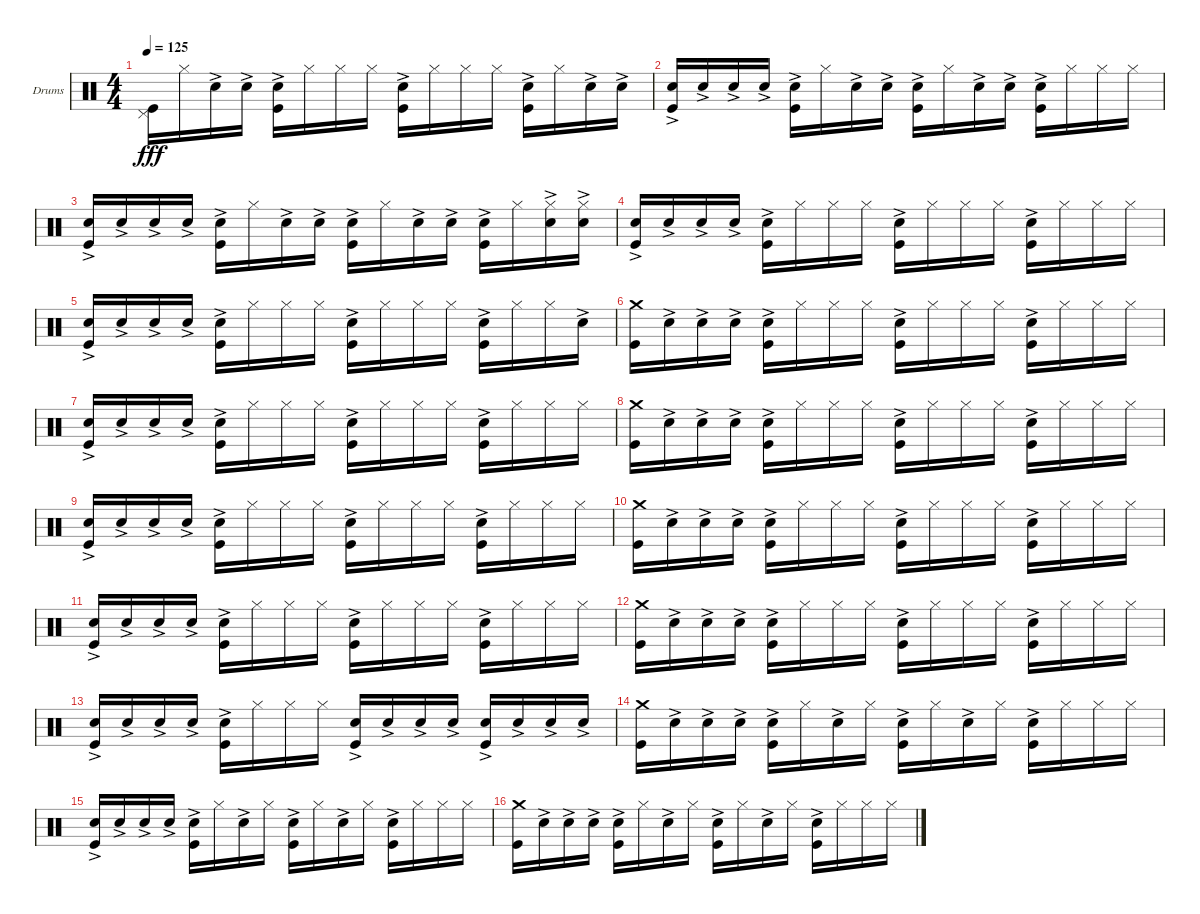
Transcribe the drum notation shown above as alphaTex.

\bracketExtendMode groupsimilarinstruments
\firstSystemTrackNameOrientation horizontal
\otherSystemsTrackNameOrientation horizontal
\track ("Ударники Григорий Гурьянов" "Drums") {instrument percussion}
\staff {score}
\articulation defaults
\ts (4 4)
\tempo 125
\clef neutral
\ks c
("Pedal Hi-Hat (hit)" "Kick (hit)").16{dy fff} "Hi-Hat (closed)".16 "Snare (hit) 2"{ac}.16 "Snare (hit) 2"{ac}.16 ("Snare (hit) 2"{ac} "Kick (hit)").16 "Hi-Hat (closed)".16 "Hi-Hat (closed)".16 "Hi-Hat (closed)".16 ("Snare (hit) 2"{ac} "Kick (hit)").16 "Hi-Hat (closed)".16 "Hi-Hat (closed)".16 "Hi-Hat (closed)".16 ("Snare (hit) 2"{ac} "Kick (hit)").16 "Hi-Hat (closed)".16 "Snare (hit) 2"{ac}.16 "Snare (hit) 2"{ac}.16 |
("Snare (hit) 2"{ac} "Kick (hit)").16 "Snare (hit) 2"{ac}.16 "Snare (hit) 2"{ac}.16 "Snare (hit) 2"{ac}.16 ("Snare (hit) 2"{ac} "Kick (hit)").16 "Hi-Hat (closed)".16 "Snare (hit) 2"{ac}.16 "Snare (hit) 2"{ac}.16 ("Snare (hit) 2"{ac} "Kick (hit)").16 "Hi-Hat (closed)".16 "Snare (hit) 2"{ac}.16 "Snare (hit) 2"{ac}.16 ("Snare (hit) 2"{ac} "Kick (hit)").16 "Hi-Hat (closed)".16 "Hi-Hat (closed)".16 "Hi-Hat (closed)".16 |
("Snare (hit) 2"{ac} "Kick (hit)").16 "Snare (hit) 2"{ac}.16 "Snare (hit) 2"{ac}.16 "Snare (hit) 2"{ac}.16 ("Snare (hit) 2"{ac} "Kick (hit)").16 "Hi-Hat (closed)".16 "Snare (hit) 2"{ac}.16 "Snare (hit) 2"{ac}.16 ("Snare (hit) 2"{ac} "Kick (hit)").16 "Hi-Hat (closed)".16 "Snare (hit) 2"{ac}.16 "Snare (hit) 2"{ac}.16 ("Snare (hit) 2"{ac} "Kick (hit)").16 "Hi-Hat (closed)".16 ("Hi-Hat (closed)" "Snare (hit) 2"{ac}).16 ("Hi-Hat (closed)" "Snare (hit) 2"{ac}).16 |
("Snare (hit) 2"{ac} "Kick (hit)").16 "Snare (hit) 2"{ac}.16 "Snare (hit) 2"{ac}.16 "Snare (hit) 2"{ac}.16 ("Snare (hit) 2"{ac} "Kick (hit)").16 "Hi-Hat (closed)".16 "Hi-Hat (closed)".16 "Hi-Hat (closed)".16 ("Snare (hit) 2"{ac} "Kick (hit)").16 "Hi-Hat (closed)".16 "Hi-Hat (closed)".16 "Hi-Hat (closed)".16 ("Snare (hit) 2"{ac} "Kick (hit)").16 "Hi-Hat (closed)".16 "Hi-Hat (closed)".16 "Hi-Hat (closed)".16 |
("Snare (hit) 2"{ac} "Kick (hit)").16 "Snare (hit) 2"{ac}.16 "Snare (hit) 2"{ac}.16 "Snare (hit) 2"{ac}.16 ("Snare (hit) 2"{ac} "Kick (hit)").16 "Hi-Hat (closed)".16 "Hi-Hat (closed)".16 "Hi-Hat (closed)".16 ("Snare (hit) 2"{ac} "Kick (hit)").16 "Hi-Hat (closed)".16 "Hi-Hat (closed)".16 "Hi-Hat (closed)".16 ("Snare (hit) 2"{ac} "Kick (hit)").16 "Hi-Hat (closed)".16 "Hi-Hat (closed)".16 "Snare (hit) 2"{ac}.16 |
("Crash medium (hit)" "Kick (hit)").16 "Snare (hit) 2"{ac}.16 "Snare (hit) 2"{ac}.16 "Snare (hit) 2"{ac}.16 ("Snare (hit) 2"{ac} "Kick (hit)").16 "Hi-Hat (closed)".16 "Hi-Hat (closed)".16 "Hi-Hat (closed)".16 ("Snare (hit) 2"{ac} "Kick (hit)").16 "Hi-Hat (closed)".16 "Hi-Hat (closed)".16 "Hi-Hat (closed)".16 ("Snare (hit) 2"{ac} "Kick (hit)").16 "Hi-Hat (closed)".16 "Hi-Hat (closed)".16 "Hi-Hat (closed)".16 |
("Snare (hit) 2"{ac} "Kick (hit)").16 "Snare (hit) 2"{ac}.16 "Snare (hit) 2"{ac}.16 "Snare (hit) 2"{ac}.16 ("Snare (hit) 2"{ac} "Kick (hit)").16 "Hi-Hat (closed)".16 "Hi-Hat (closed)".16 "Hi-Hat (closed)".16 ("Snare (hit) 2"{ac} "Kick (hit)").16 "Hi-Hat (closed)".16 "Hi-Hat (closed)".16 "Hi-Hat (closed)".16 ("Snare (hit) 2"{ac} "Kick (hit)").16 "Hi-Hat (closed)".16 "Hi-Hat (closed)".16 "Hi-Hat (closed)".16 |
("Crash medium (hit)" "Kick (hit)").16 "Snare (hit) 2"{ac}.16 "Snare (hit) 2"{ac}.16 "Snare (hit) 2"{ac}.16 ("Snare (hit) 2"{ac} "Kick (hit)").16 "Hi-Hat (closed)".16 "Hi-Hat (closed)".16 "Hi-Hat (closed)".16 ("Snare (hit) 2"{ac} "Kick (hit)").16 "Hi-Hat (closed)".16 "Hi-Hat (closed)".16 "Hi-Hat (closed)".16 ("Snare (hit) 2"{ac} "Kick (hit)").16 "Hi-Hat (closed)".16 "Hi-Hat (closed)".16 "Hi-Hat (closed)".16 |
("Snare (hit) 2"{ac} "Kick (hit)").16 "Snare (hit) 2"{ac}.16 "Snare (hit) 2"{ac}.16 "Snare (hit) 2"{ac}.16 ("Snare (hit) 2"{ac} "Kick (hit)").16 "Hi-Hat (closed)".16 "Hi-Hat (closed)".16 "Hi-Hat (closed)".16 ("Snare (hit) 2"{ac} "Kick (hit)").16 "Hi-Hat (closed)".16 "Hi-Hat (closed)".16 "Hi-Hat (closed)".16 ("Snare (hit) 2"{ac} "Kick (hit)").16 "Hi-Hat (closed)".16 "Hi-Hat (closed)".16 "Hi-Hat (closed)".16 |
("Crash medium (hit)" "Kick (hit)").16 "Snare (hit) 2"{ac}.16 "Snare (hit) 2"{ac}.16 "Snare (hit) 2"{ac}.16 ("Snare (hit) 2"{ac} "Kick (hit)").16 "Hi-Hat (closed)".16 "Hi-Hat (closed)".16 "Hi-Hat (closed)".16 ("Snare (hit) 2"{ac} "Kick (hit)").16 "Hi-Hat (closed)".16 "Hi-Hat (closed)".16 "Hi-Hat (closed)".16 ("Snare (hit) 2"{ac} "Kick (hit)").16 "Hi-Hat (closed)".16 "Hi-Hat (closed)".16 "Hi-Hat (closed)".16 |
("Snare (hit) 2"{ac} "Kick (hit)").16 "Snare (hit) 2"{ac}.16 "Snare (hit) 2"{ac}.16 "Snare (hit) 2"{ac}.16 ("Snare (hit) 2"{ac} "Kick (hit)").16 "Hi-Hat (closed)".16 "Hi-Hat (closed)".16 "Hi-Hat (closed)".16 ("Snare (hit) 2"{ac} "Kick (hit)").16 "Hi-Hat (closed)".16 "Hi-Hat (closed)".16 "Hi-Hat (closed)".16 ("Snare (hit) 2"{ac} "Kick (hit)").16 "Hi-Hat (closed)".16 "Hi-Hat (closed)".16 "Hi-Hat (closed)".16 |
("Crash medium (hit)" "Kick (hit)").16 "Snare (hit) 2"{ac}.16 "Snare (hit) 2"{ac}.16 "Snare (hit) 2"{ac}.16 ("Snare (hit) 2"{ac} "Kick (hit)").16 "Hi-Hat (closed)".16 "Hi-Hat (closed)".16 "Hi-Hat (closed)".16 ("Snare (hit) 2"{ac} "Kick (hit)").16 "Hi-Hat (closed)".16 "Hi-Hat (closed)".16 "Hi-Hat (closed)".16 ("Snare (hit) 2"{ac} "Kick (hit)").16 "Hi-Hat (closed)".16 "Hi-Hat (closed)".16 "Hi-Hat (closed)".16 |
("Snare (hit) 2"{ac} "Kick (hit)").16 "Snare (hit) 2"{ac}.16 "Snare (hit) 2"{ac}.16 "Snare (hit) 2"{ac}.16 ("Snare (hit) 2"{ac} "Kick (hit)").16 "Hi-Hat (closed)".16 "Hi-Hat (closed)".16 "Hi-Hat (closed)".16 ("Snare (hit) 2"{ac} "Kick (hit)").16 "Snare (hit) 2"{ac}.16 "Snare (hit) 2"{ac}.16 "Snare (hit) 2"{ac}.16 ("Snare (hit) 2"{ac} "Kick (hit)").16 "Snare (hit) 2"{ac}.16 "Snare (hit) 2"{ac}.16 "Snare (hit) 2"{ac}.16 |
("Crash medium (hit)" "Kick (hit)").16 "Snare (hit) 2"{ac}.16 "Snare (hit) 2"{ac}.16 "Snare (hit) 2"{ac}.16 ("Snare (hit) 2"{ac} "Kick (hit)").16 "Hi-Hat (closed)".16 "Snare (hit) 2"{ac}.16 "Hi-Hat (closed)".16 ("Snare (hit) 2"{ac} "Kick (hit)").16 "Hi-Hat (closed)".16 "Snare (hit) 2"{ac}.16 "Hi-Hat (closed)".16 ("Snare (hit) 2"{ac} "Kick (hit)").16 "Hi-Hat (closed)".16 "Hi-Hat (closed)".16 "Hi-Hat (closed)".16 |
("Snare (hit) 2"{ac} "Kick (hit)").16 "Snare (hit) 2"{ac}.16 "Snare (hit) 2"{ac}.16 "Snare (hit) 2"{ac}.16 ("Snare (hit) 2"{ac} "Kick (hit)").16 "Hi-Hat (closed)".16 "Snare (hit) 2"{ac}.16 "Hi-Hat (closed)".16 ("Snare (hit) 2"{ac} "Kick (hit)").16 "Hi-Hat (closed)".16 "Snare (hit) 2"{ac}.16 "Hi-Hat (closed)".16 ("Snare (hit) 2"{ac} "Kick (hit)").16 "Hi-Hat (closed)".16 "Hi-Hat (closed)".16 "Hi-Hat (closed)".16 |
("Crash medium (hit)" "Kick (hit)").16 "Snare (hit) 2"{ac}.16 "Snare (hit) 2"{ac}.16 "Snare (hit) 2"{ac}.16 ("Snare (hit) 2"{ac} "Kick (hit)").16 "Hi-Hat (closed)".16 "Snare (hit) 2"{ac}.16 "Hi-Hat (closed)".16 ("Snare (hit) 2"{ac} "Kick (hit)").16 "Hi-Hat (closed)".16 "Snare (hit) 2"{ac}.16 "Hi-Hat (closed)".16 ("Snare (hit) 2"{ac} "Kick (hit)").16 "Hi-Hat (closed)".16 "Hi-Hat (closed)".16 "Hi-Hat (closed)".16
